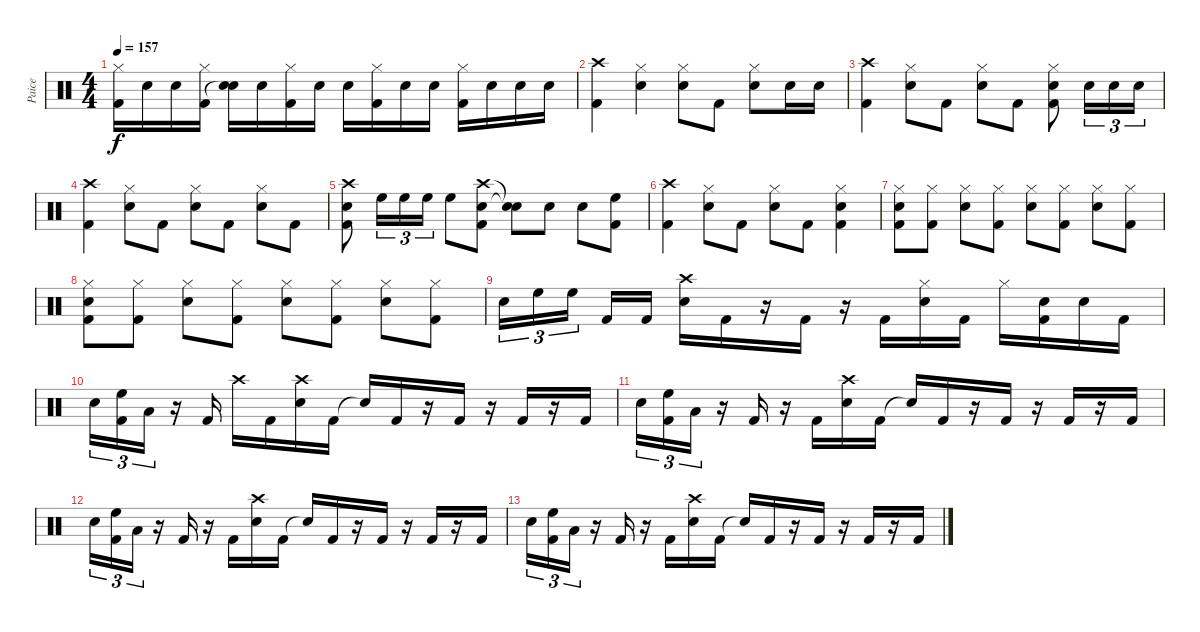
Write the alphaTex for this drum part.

\track ("Paice" "Paice") {instrument percussion}
\staff {score}
\articulation defaults
\ts (4 4)
\tempo 157
\clef neutral
\ks c
("Hi-Hat (closed)" "Kick (hit) 2").16{dy f} "Snare (hit) 2".16 "Snare (hit) 2".16 ("Hi-Hat (closed)" "Kick (hit) 2").16 ("Snare (hit) 2" "Snare (hit)"{t}).16 "Snare (hit) 2".16 ("Hi-Hat (closed)" "Kick (hit) 2").16 "Snare (hit) 2".16 "Snare (hit) 2".16 ("Hi-Hat (closed)" "Kick (hit) 2").16 "Snare (hit) 2".16 "Snare (hit) 2".16 ("Hi-Hat (closed)" "Kick (hit) 2").16 "Snare (hit) 2".16 "Snare (hit) 2".16 "Snare (hit) 2".16 |
("Crash high (hit)" "Kick (hit) 2").4 ("Hi-Hat (closed)" "Snare (hit) 2").4 ("Hi-Hat (closed)" "Snare (hit) 2").8 "Kick (hit) 2".8 ("Hi-Hat (closed)" "Snare (hit) 2").8 "Snare (hit) 2".16 "Snare (hit) 2".16 |
("Crash high (hit)" "Kick (hit) 2").4 ("Hi-Hat (closed)" "Snare (hit) 2").8 "Kick (hit) 2".8 ("Hi-Hat (closed)" "Snare (hit) 2").8 "Kick (hit) 2".8 ("Hi-Hat (closed)" "Snare (hit) 2" "Kick (hit) 2").8 "Snare (hit) 2".16{tu (3 2)} "Snare (hit) 2".16{tu (3 2)} "Snare (hit) 2".16{tu (3 2)} |
("Crash high (hit)" "Kick (hit) 2").4 ("Hi-Hat (closed)" "Snare (hit) 2").8 "Kick (hit) 2".8 ("Hi-Hat (closed)" "Snare (hit) 2").8 "Kick (hit) 2".8 ("Hi-Hat (closed)" "Snare (hit) 2").8 "Kick (hit) 2".8 |
("Crash high (hit)" "Snare (hit) 2" "Kick (hit) 2").8 "High Floor Tom (hit)".16{tu (3 2)} "High Floor Tom (hit)".16{tu (3 2)} "High Floor Tom (hit)".16{tu (3 2)} "High Floor Tom (hit)".8 ("Crash high (hit)" "Snare (hit) 2" "Kick (hit) 2").8 ("Snare (hit)"{t} "Snare (hit)"{t}).8 "Snare (hit) 2".8 "Snare (hit) 2".8 ("High Floor Tom (hit)" "Kick (hit) 2").8 |
("Crash high (hit)" "Kick (hit) 2").4 ("Hi-Hat (closed)" "Snare (hit) 2").8 "Kick (hit) 2".8 ("Hi-Hat (closed)" "Snare (hit) 2").8 "Kick (hit) 2".8 ("Hi-Hat (closed)" "Snare (hit) 2" "Kick (hit) 2").4 |
("Hi-Hat (closed)" "Snare (hit) 2" "Kick (hit) 2").8 ("Hi-Hat (closed)" "Kick (hit) 2").8 ("Hi-Hat (closed)" "Snare (hit) 2").8 ("Hi-Hat (closed)" "Kick (hit) 2").8 ("Hi-Hat (closed)" "Snare (hit) 2").8 ("Hi-Hat (closed)" "Kick (hit) 2").8 ("Hi-Hat (closed)" "Snare (hit) 2").8 ("Hi-Hat (closed)" "Kick (hit) 2").8 |
("Hi-Hat (closed)" "Snare (hit) 2" "Kick (hit) 2").8 ("Hi-Hat (closed)" "Kick (hit) 2").8 ("Hi-Hat (closed)" "Snare (hit) 2").8 ("Hi-Hat (closed)" "Kick (hit) 2").8 ("Hi-Hat (closed)" "Snare (hit) 2").8 ("Hi-Hat (closed)" "Kick (hit) 2").8 ("Hi-Hat (closed)" "Snare (hit) 2").8 ("Hi-Hat (closed)" "Kick (hit) 2").8 |
"Snare (hit) 2".16{tu (3 2)} "High Floor Tom (hit)".16{tu (3 2)} "High Floor Tom (hit)".16{tu (3 2)} "Kick (hit) 2".16 "Kick (hit) 2".16 ("Crash high (hit)" "Snare (hit) 2").16 "Kick (hit) 2".16 r.16 "Kick (hit) 2".16 r.16 "Kick (hit) 2".16 ("Hi-Hat (closed)" "Snare (hit) 2").16 "Kick (hit) 2".16 "Hi-Hat (closed)".16 ("Snare (hit) 2" "Kick (hit) 2").16 "Snare (hit) 2".16 "Kick (hit) 2".16 |
"Snare (hit) 2".16{tu (3 2) volume 8} ("High Floor Tom (hit)" "Kick (hit) 2").16{tu (3 2)} "Low Tom (hit)".16{tu (3 2)} r.16 "Kick (hit) 2".16 "Crash high (hit)".16 "Kick (hit) 2".16 ("Crash high (hit)" "Snare (hit) 2").16 "Kick (hit) 2".16 "Snare (hit)"{t}.16 "Kick (hit) 2".16 r.16 "Kick (hit) 2".16 r.16 "Kick (hit) 2".16 r.16 "Kick (hit) 2".16 |
"Snare (hit) 2".16{tu (3 2)} ("High Floor Tom (hit)" "Kick (hit) 2").16{tu (3 2)} "Low Tom (hit)".16{tu (3 2)} r.16 "Kick (hit) 2".16 r.16 "Kick (hit) 2".16 ("Crash high (hit)" "Snare (hit) 2").16 "Kick (hit) 2".16 "Snare (hit)"{t}.16 "Kick (hit) 2".16 r.16 "Kick (hit) 2".16 r.16 "Kick (hit) 2".16 r.16 "Kick (hit) 2".16 |
"Snare (hit) 2".16{tu (3 2) volume 0} ("High Floor Tom (hit)" "Kick (hit) 2").16{tu (3 2)} "Low Tom (hit)".16{tu (3 2)} r.16 "Kick (hit) 2".16 r.16 "Kick (hit) 2".16 ("Crash high (hit)" "Snare (hit) 2").16 "Kick (hit) 2".16 "Snare (hit)"{t}.16 "Kick (hit) 2".16 r.16 "Kick (hit) 2".16 r.16 "Kick (hit) 2".16 r.16 "Kick (hit) 2".16 |
"Snare (hit) 2".16{tu (3 2)} ("High Floor Tom (hit)" "Kick (hit) 2").16{tu (3 2)} "Low Tom (hit)".16{tu (3 2)} r.16 "Kick (hit) 2".16 r.16 "Kick (hit) 2".16 ("Crash high (hit)" "Snare (hit) 2").16 "Kick (hit) 2".16 "Snare (hit)"{t}.16 "Kick (hit) 2".16 r.16 "Kick (hit) 2".16 r.16 "Kick (hit) 2".16 r.16 "Kick (hit) 2".16
